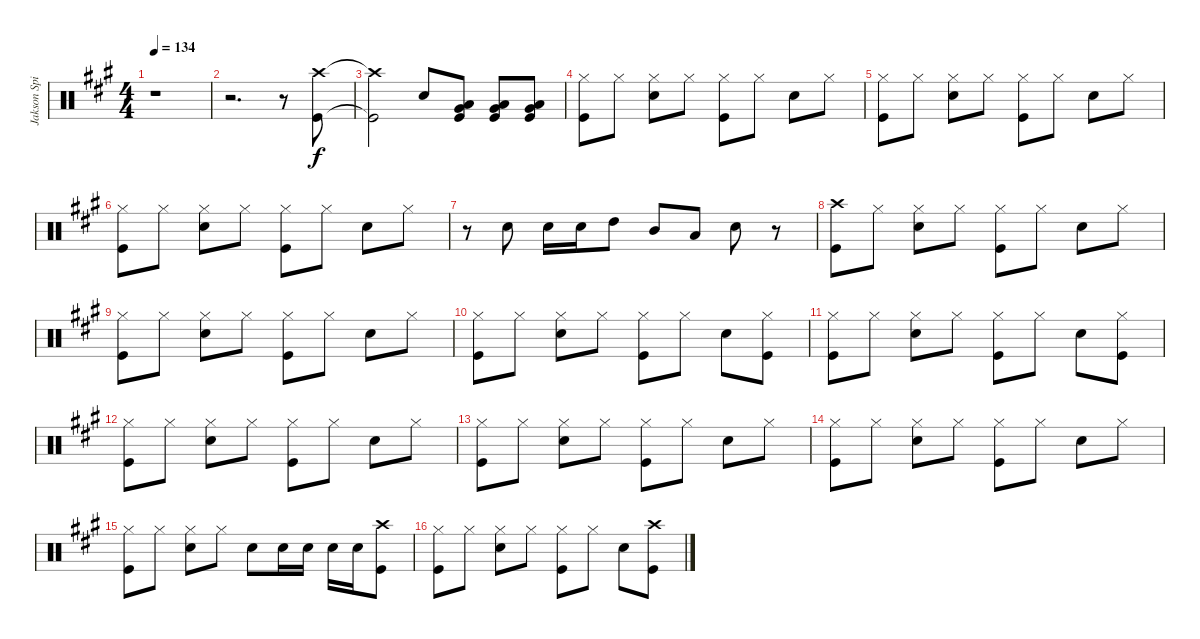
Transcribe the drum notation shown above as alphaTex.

\track ("Jakson Spires Drums" "Jakson Spi") {instrument percussion}
\staff {score}
\articulation defaults
\ts (4 4)
\tempo 134
\clef neutral
\ks a
r.1{dy f} |
r.2{d} r.8 ("Crash high (hit)" "Kick (hit)").8 |
("Crash high (hit)"{t} "Kick (hit)"{t}).2 "Snare (hit) 2".8 ("Low Tom (hit)" "Very Low Tom (hit)" "Kick (hit)").8 ("Low Tom (hit)" "Very Low Tom (hit)" "Kick (hit)").8 ("Low Tom (hit)" "Very Low Tom (hit)" "Kick (hit)").8 |
("Hi-Hat (closed)" "Kick (hit)").8 "Hi-Hat (closed)".8 ("Hi-Hat (closed)" "Snare (hit) 2").8 "Hi-Hat (closed)".8 ("Hi-Hat (closed)" "Kick (hit)").8 "Hi-Hat (closed)".8 "Snare (hit) 2".8 "Hi-Hat (closed)".8 |
("Hi-Hat (closed)" "Kick (hit)").8 "Hi-Hat (closed)".8 ("Hi-Hat (closed)" "Snare (hit) 2").8 "Hi-Hat (closed)".8 ("Hi-Hat (closed)" "Kick (hit)").8 "Hi-Hat (closed)".8 "Snare (hit) 2".8 "Hi-Hat (closed)".8 |
("Hi-Hat (closed)" "Kick (hit)").8 "Hi-Hat (closed)".8 ("Hi-Hat (closed)" "Snare (hit) 2").8 "Hi-Hat (closed)".8 ("Hi-Hat (closed)" "Kick (hit)").8 "Hi-Hat (closed)".8 "Snare (hit) 2".8 "Hi-Hat (closed)".8 |
r.8 "Snare (hit) 2".8 "Snare (hit) 2".16 "Snare (hit) 2".16 "High Tom (hit)".8 "Mid Tom (hit)".8 "Low Tom (hit)".8 "Snare (hit) 2".8 r.8 |
("Crash high (hit)" "Kick (hit)").8 "Hi-Hat (closed)".8 ("Hi-Hat (closed)" "Snare (hit) 2").8 "Hi-Hat (closed)".8 ("Hi-Hat (closed)" "Kick (hit)").8 "Hi-Hat (closed)".8 "Snare (hit) 2".8 "Hi-Hat (closed)".8 |
("Hi-Hat (closed)" "Kick (hit)").8 "Hi-Hat (closed)".8 ("Hi-Hat (closed)" "Snare (hit) 2").8 "Hi-Hat (closed)".8 ("Hi-Hat (closed)" "Kick (hit)").8 "Hi-Hat (closed)".8 "Snare (hit) 2".8 "Hi-Hat (closed)".8 |
("Hi-Hat (closed)" "Kick (hit)").8 "Hi-Hat (closed)".8 ("Hi-Hat (closed)" "Snare (hit) 2").8 "Hi-Hat (closed)".8 ("Hi-Hat (closed)" "Kick (hit)").8 "Hi-Hat (closed)".8 "Snare (hit) 2".8 ("Hi-Hat (closed)" "Kick (hit)").8 |
("Hi-Hat (closed)" "Kick (hit)").8 "Hi-Hat (closed)".8 ("Hi-Hat (closed)" "Snare (hit) 2").8 "Hi-Hat (closed)".8 ("Hi-Hat (closed)" "Kick (hit)").8 "Hi-Hat (closed)".8 "Snare (hit) 2".8 ("Hi-Hat (closed)" "Kick (hit)").8 |
("Hi-Hat (closed)" "Kick (hit)").8 "Hi-Hat (closed)".8 ("Hi-Hat (closed)" "Snare (hit) 2").8 "Hi-Hat (closed)".8 ("Hi-Hat (closed)" "Kick (hit)").8 "Hi-Hat (closed)".8 "Snare (hit) 2".8 "Hi-Hat (closed)".8 |
("Hi-Hat (closed)" "Kick (hit)").8 "Hi-Hat (closed)".8 ("Hi-Hat (closed)" "Snare (hit) 2").8 "Hi-Hat (closed)".8 ("Hi-Hat (closed)" "Kick (hit)").8 "Hi-Hat (closed)".8 "Snare (hit) 2".8 "Hi-Hat (closed)".8 |
("Hi-Hat (closed)" "Kick (hit)").8 "Hi-Hat (closed)".8 ("Hi-Hat (closed)" "Snare (hit) 2").8 "Hi-Hat (closed)".8 ("Hi-Hat (closed)" "Kick (hit)").8 "Hi-Hat (closed)".8 "Snare (hit) 2".8 "Hi-Hat (closed)".8 |
("Hi-Hat (closed)" "Kick (hit)").8 "Hi-Hat (closed)".8 ("Hi-Hat (closed)" "Snare (hit) 2").8 "Hi-Hat (closed)".8 "Snare (hit) 2".8 "Snare (hit) 2".16 "Snare (hit) 2".16 "Snare (hit) 2".16 "Snare (hit) 2".16 ("Crash high (hit)" "Kick (hit)").8 |
("Hi-Hat (closed)" "Kick (hit)").8 "Hi-Hat (closed)".8 ("Hi-Hat (closed)" "Snare (hit) 2").8 "Hi-Hat (closed)".8 ("Hi-Hat (closed)" "Kick (hit)").8 "Hi-Hat (closed)".8 "Snare (hit) 2".8 ("Crash high (hit)" "Kick (hit)").8
